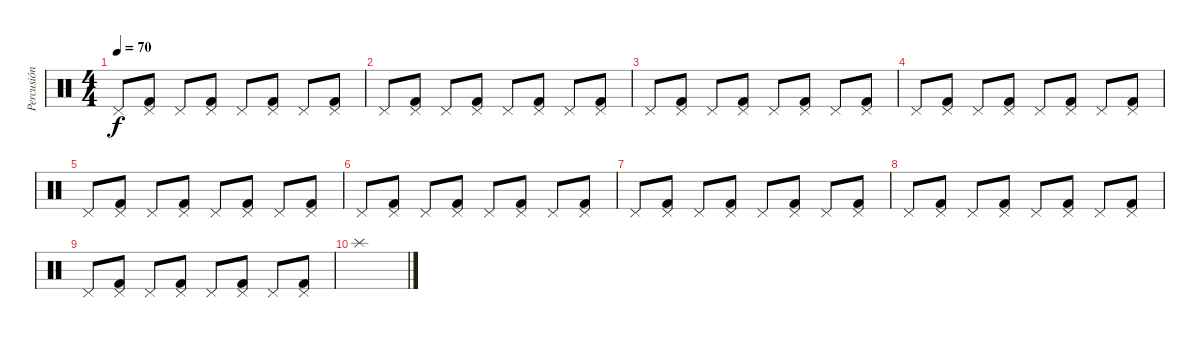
\track ("Percusión" "Percusión") {instrument percussion}
\staff {score}
\articulation defaults
\ts (4 4)
\tempo 70
\clef neutral
\ks c "Pedal Hi-Hat (hit)".8{dy f}
("Pedal Hi-Hat (hit)" "Kick (hit) 2").8 "Pedal Hi-Hat (hit)".8 ("Pedal Hi-Hat (hit)" "Kick (hit) 2").8 "Pedal Hi-Hat (hit)".8 ("Pedal Hi-Hat (hit)" "Kick (hit) 2").8 "Pedal Hi-Hat (hit)".8 ("Pedal Hi-Hat (hit)" "Kick (hit) 2").8 |
"Pedal Hi-Hat (hit)".8 ("Pedal Hi-Hat (hit)" "Kick (hit) 2").8 "Pedal Hi-Hat (hit)".8 ("Pedal Hi-Hat (hit)" "Kick (hit) 2").8 "Pedal Hi-Hat (hit)".8 ("Pedal Hi-Hat (hit)" "Kick (hit) 2").8 "Pedal Hi-Hat (hit)".8 ("Pedal Hi-Hat (hit)" "Kick (hit) 2").8 |
"Pedal Hi-Hat (hit)".8 ("Pedal Hi-Hat (hit)" "Kick (hit) 2").8 "Pedal Hi-Hat (hit)".8 ("Pedal Hi-Hat (hit)" "Kick (hit) 2").8 "Pedal Hi-Hat (hit)".8 ("Pedal Hi-Hat (hit)" "Kick (hit) 2").8 "Pedal Hi-Hat (hit)".8 ("Pedal Hi-Hat (hit)" "Kick (hit) 2").8 |
"Pedal Hi-Hat (hit)".8 ("Pedal Hi-Hat (hit)" "Kick (hit) 2").8 "Pedal Hi-Hat (hit)".8 ("Pedal Hi-Hat (hit)" "Kick (hit) 2").8 "Pedal Hi-Hat (hit)".8 ("Pedal Hi-Hat (hit)" "Kick (hit) 2").8 "Pedal Hi-Hat (hit)".8 ("Pedal Hi-Hat (hit)" "Kick (hit) 2").8 |
"Pedal Hi-Hat (hit)".8 ("Pedal Hi-Hat (hit)" "Kick (hit) 2").8 "Pedal Hi-Hat (hit)".8 ("Pedal Hi-Hat (hit)" "Kick (hit) 2").8 "Pedal Hi-Hat (hit)".8 ("Pedal Hi-Hat (hit)" "Kick (hit) 2").8 "Pedal Hi-Hat (hit)".8 ("Pedal Hi-Hat (hit)" "Kick (hit) 2").8 |
"Pedal Hi-Hat (hit)".8 ("Pedal Hi-Hat (hit)" "Kick (hit) 2").8 "Pedal Hi-Hat (hit)".8 ("Pedal Hi-Hat (hit)" "Kick (hit) 2").8 "Pedal Hi-Hat (hit)".8 ("Pedal Hi-Hat (hit)" "Kick (hit) 2").8 "Pedal Hi-Hat (hit)".8 ("Pedal Hi-Hat (hit)" "Kick (hit) 2").8 |
"Pedal Hi-Hat (hit)".8 ("Pedal Hi-Hat (hit)" "Kick (hit) 2").8 "Pedal Hi-Hat (hit)".8 ("Pedal Hi-Hat (hit)" "Kick (hit) 2").8 "Pedal Hi-Hat (hit)".8 ("Pedal Hi-Hat (hit)" "Kick (hit) 2").8 "Pedal Hi-Hat (hit)".8 ("Pedal Hi-Hat (hit)" "Kick (hit) 2").8 |
"Pedal Hi-Hat (hit)".8 ("Pedal Hi-Hat (hit)" "Kick (hit) 2").8 "Pedal Hi-Hat (hit)".8 ("Pedal Hi-Hat (hit)" "Kick (hit) 2").8 "Pedal Hi-Hat (hit)".8 ("Pedal Hi-Hat (hit)" "Kick (hit) 2").8 "Pedal Hi-Hat (hit)".8 ("Pedal Hi-Hat (hit)" "Kick (hit) 2").8 |
"Pedal Hi-Hat (hit)".8 ("Pedal Hi-Hat (hit)" "Kick (hit) 2").8 "Pedal Hi-Hat (hit)".8 ("Pedal Hi-Hat (hit)" "Kick (hit) 2").8 "Pedal Hi-Hat (hit)".8 ("Pedal Hi-Hat (hit)" "Kick (hit) 2").8 "Pedal Hi-Hat (hit)".8 ("Pedal Hi-Hat (hit)" "Kick (hit) 2").8 |
"Splash (hit)".1
